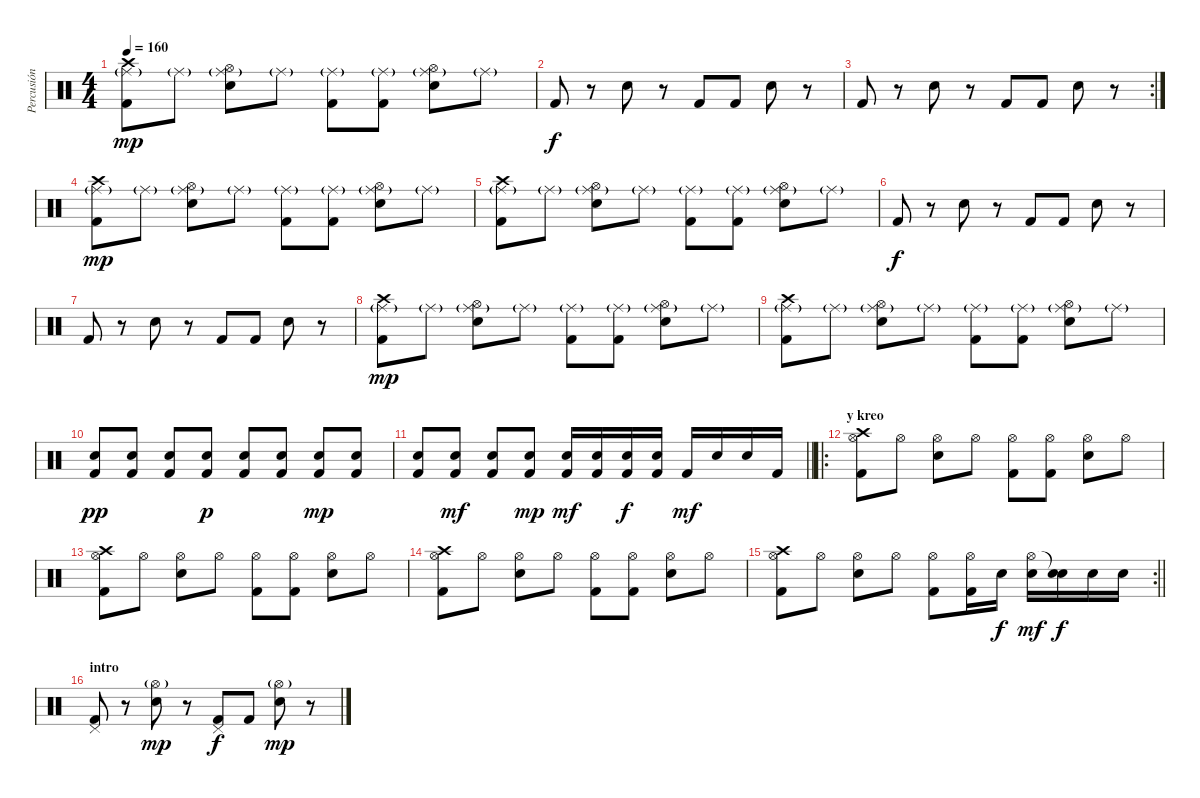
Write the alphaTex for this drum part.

\track ("Percusión" "Percusión") {instrument percussion}
\staff {score}
\articulation defaults
\ts (4 4)
\tempo 160
\clef neutral
\ks c
("Crash high (hit)" "Ride (middle)"{g} "Kick (hit) 2").8{dy mp} "Ride (middle)"{g}.8 ("Hi-Hat (open)" "Ride (middle)"{g} "Electric Snare (hit)").8 "Ride (middle)"{g}.8 ("Ride (middle)"{g} "Kick (hit) 2").8 ("Ride (middle)"{g} "Kick (hit) 2").8 ("Hi-Hat (open)" "Ride (middle)"{g} "Electric Snare (hit)").8 "Ride (middle)"{g}.8 |
"Kick (hit) 2".8{dy f} r.8 "Electric Snare (hit)".8 r.8 "Kick (hit) 2".8 "Kick (hit) 2".8 "Electric Snare (hit)".8 r.8 |
\rc 2 "Kick (hit) 2".8
r.8 "Electric Snare (hit)".8 r.8 "Kick (hit) 2".8 "Kick (hit) 2".8 "Electric Snare (hit)".8 r.8 |
("Crash high (hit)" "Ride (middle)"{g} "Kick (hit) 2").8{dy mp} "Ride (middle)"{g}.8 ("Hi-Hat (open)" "Ride (middle)"{g} "Electric Snare (hit)").8 "Ride (middle)"{g}.8 ("Ride (middle)"{g} "Kick (hit) 2").8 ("Ride (middle)"{g} "Kick (hit) 2").8 ("Hi-Hat (open)" "Ride (middle)"{g} "Electric Snare (hit)").8 "Ride (middle)"{g}.8 |
("Crash high (hit)" "Ride (middle)"{g} "Kick (hit) 2").8 "Ride (middle)"{g}.8 ("Hi-Hat (open)" "Ride (middle)"{g} "Electric Snare (hit)").8 "Ride (middle)"{g}.8 ("Ride (middle)"{g} "Kick (hit) 2").8 ("Ride (middle)"{g} "Kick (hit) 2").8 ("Hi-Hat (open)" "Ride (middle)"{g} "Electric Snare (hit)").8 "Ride (middle)"{g}.8 |
"Kick (hit) 2".8{dy f} r.8 "Electric Snare (hit)".8 r.8 "Kick (hit) 2".8 "Kick (hit) 2".8 "Electric Snare (hit)".8 r.8 |
"Kick (hit) 2".8 r.8 "Electric Snare (hit)".8 r.8 "Kick (hit) 2".8 "Kick (hit) 2".8 "Electric Snare (hit)".8 r.8 |
("Crash high (hit)" "Ride (middle)"{g} "Kick (hit) 2").8{dy mp} "Ride (middle)"{g}.8 ("Hi-Hat (open)" "Ride (middle)"{g} "Electric Snare (hit)").8 "Ride (middle)"{g}.8 ("Ride (middle)"{g} "Kick (hit) 2").8 ("Ride (middle)"{g} "Kick (hit) 2").8 ("Hi-Hat (open)" "Ride (middle)"{g} "Electric Snare (hit)").8 "Ride (middle)"{g}.8 |
("Crash high (hit)" "Ride (middle)"{g} "Kick (hit) 2").8 "Ride (middle)"{g}.8 ("Hi-Hat (open)" "Ride (middle)"{g} "Electric Snare (hit)").8 "Ride (middle)"{g}.8 ("Ride (middle)"{g} "Kick (hit) 2").8 ("Ride (middle)"{g} "Kick (hit) 2").8 ("Hi-Hat (open)" "Ride (middle)"{g} "Electric Snare (hit)").8 "Ride (middle)"{g}.8 |
("Electric Snare (hit)" "Kick (hit) 2").8{dy pp} ("Electric Snare (hit)" "Kick (hit) 2").8 ("Electric Snare (hit)" "Kick (hit) 2").8 ("Electric Snare (hit)" "Kick (hit) 2").8{dy p} ("Electric Snare (hit)" "Kick (hit) 2").8 ("Electric Snare (hit)" "Kick (hit) 2").8 ("Electric Snare (hit)" "Kick (hit) 2").8{dy mp} ("Electric Snare (hit)" "Kick (hit) 2").8 |
\barLineRight lightlight
("Electric Snare (hit)" "Kick (hit) 2").8 ("Electric Snare (hit)" "Kick (hit) 2").8{dy mf} ("Electric Snare (hit)" "Kick (hit) 2").8 ("Electric Snare (hit)" "Kick (hit) 2").8{dy mp} ("Electric Snare (hit)" "Kick (hit) 2").16{dy mf} ("Electric Snare (hit)" "Kick (hit) 2").16 ("Electric Snare (hit)" "Kick (hit) 2").16{dy f} ("Electric Snare (hit)" "Kick (hit) 2").16 "Kick (hit) 2".16{dy mf} "Electric Snare (hit)".16 "Electric Snare (hit)".16 "Kick (hit) 2".16 |
\ro
\section ("" "y kreo")
("Crash high (hit)" "Hi-Hat (open)" "Kick (hit) 2").8 "Hi-Hat (open)".8 ("Hi-Hat (open)" "Electric Snare (hit)").8 "Hi-Hat (open)".8 ("Hi-Hat (open)" "Kick (hit) 2").8 ("Hi-Hat (open)" "Kick (hit) 2").8 ("Hi-Hat (open)" "Electric Snare (hit)").8 "Hi-Hat (open)".8 |
("Crash high (hit)" "Hi-Hat (open)" "Kick (hit) 2").8 "Hi-Hat (open)".8 ("Hi-Hat (open)" "Electric Snare (hit)").8 "Hi-Hat (open)".8 ("Hi-Hat (open)" "Kick (hit) 2").8 ("Hi-Hat (open)" "Kick (hit) 2").8 ("Hi-Hat (open)" "Electric Snare (hit)").8 "Hi-Hat (open)".8 |
("Crash high (hit)" "Hi-Hat (open)" "Kick (hit) 2").8 "Hi-Hat (open)".8 ("Hi-Hat (open)" "Electric Snare (hit)").8 "Hi-Hat (open)".8 ("Hi-Hat (open)" "Kick (hit) 2").8 ("Hi-Hat (open)" "Kick (hit) 2").8 ("Hi-Hat (open)" "Electric Snare (hit)").8 "Hi-Hat (open)".8 |
\rc 2
\barLineRight lightlight
("Crash high (hit)" "Hi-Hat (open)" "Kick (hit) 2").8 "Hi-Hat (open)".8 ("Hi-Hat (open)" "Electric Snare (hit)").8 "Hi-Hat (open)".8 ("Hi-Hat (open)" "Kick (hit) 2").8 ("Hi-Hat (open)" "Kick (hit) 2").16 "Electric Snare (hit)".16{dy f} ("Hi-Hat (open)" "Electric Snare (hit)").16{dy mf} ("Snare (hit)"{t} "Electric Snare (hit)").16{dy f} "Electric Snare (hit)".16 "Electric Snare (hit)".16 |
\section ("" "intro")
("Pedal Hi-Hat (hit)" "Kick (hit) 2").8 r.8 ("Hi-Hat (open)"{g} "Electric Snare (hit)").8{dy mp} r.8 ("Pedal Hi-Hat (hit)" "Kick (hit) 2").8{dy f} "Kick (hit) 2".8 ("Hi-Hat (open)"{g} "Electric Snare (hit)").8{dy mp} r.8
